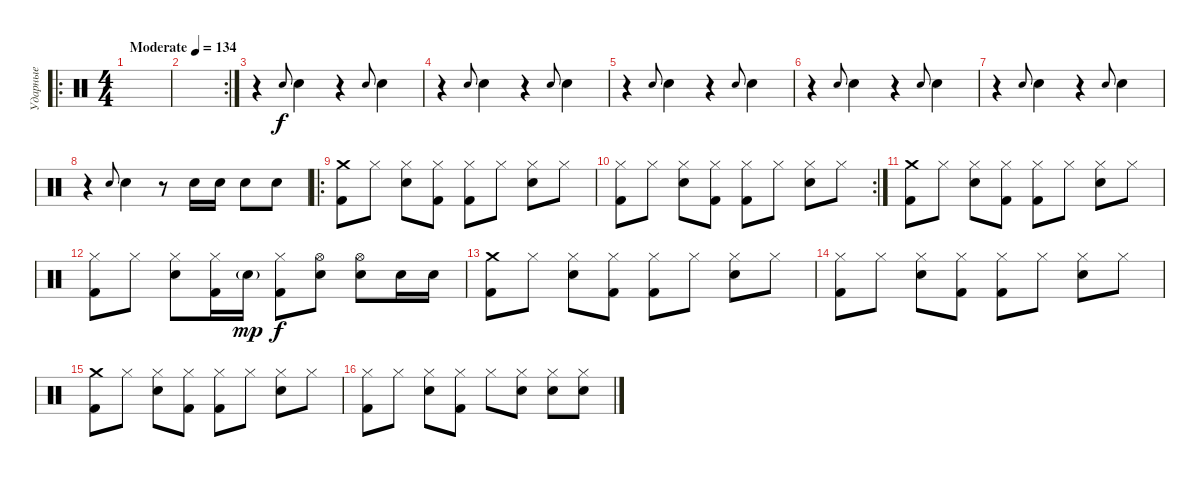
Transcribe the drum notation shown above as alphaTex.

\track ("Ударные" "Ударные") {instrument percussion}
\staff {score}
\articulation defaults
\ro
\ts (4 4)
\tempo (134 "Moderate")
\clef neutral
\ks c
|
\rc 2
|
r.4 "Electric Snare (hit)".8{gr onbeat} "Electric Snare (hit)".4 r.4 "Electric Snare (hit)".8{gr onbeat} "Electric Snare (hit)".4 |
r.4 "Electric Snare (hit)".8{gr onbeat} "Electric Snare (hit)".4 r.4 "Electric Snare (hit)".8{gr onbeat} "Electric Snare (hit)".4 |
r.4 "Electric Snare (hit)".8{gr onbeat} "Electric Snare (hit)".4 r.4 "Electric Snare (hit)".8{gr onbeat} "Electric Snare (hit)".4 |
r.4 "Electric Snare (hit)".8{gr onbeat} "Electric Snare (hit)".4 r.4 "Electric Snare (hit)".8{gr onbeat} "Electric Snare (hit)".4 |
r.4 "Electric Snare (hit)".8{gr onbeat} "Electric Snare (hit)".4 r.4 "Electric Snare (hit)".8{gr onbeat} "Electric Snare (hit)".4 |
r.4 "Electric Snare (hit)".8{gr onbeat} "Electric Snare (hit)".4 r.8 "Electric Snare (hit)".16 "Electric Snare (hit)".16 "Electric Snare (hit)".8 "Electric Snare (hit)".8 |
\ro
("Kick (hit) 2" "Crash medium (hit)").8 "Hi-Hat (closed)".8 ("Electric Snare (hit)" "Hi-Hat (closed)").8 ("Kick (hit) 2" "Hi-Hat (closed)").8 ("Kick (hit) 2" "Hi-Hat (closed)").8 "Hi-Hat (closed)".8 ("Electric Snare (hit)" "Hi-Hat (closed)").8 "Hi-Hat (closed)".8 |
\rc 2
("Kick (hit) 2" "Hi-Hat (closed)").8 "Hi-Hat (closed)".8 ("Electric Snare (hit)" "Hi-Hat (closed)").8 ("Kick (hit) 2" "Hi-Hat (closed)").8 ("Kick (hit) 2" "Hi-Hat (closed)").8 "Hi-Hat (closed)".8 ("Electric Snare (hit)" "Hi-Hat (closed)").8 "Hi-Hat (closed)".8 |
("Kick (hit) 2" "Crash medium (hit)").8 "Hi-Hat (closed)".8 ("Electric Snare (hit)" "Hi-Hat (closed)").8 ("Kick (hit) 2" "Hi-Hat (closed)").8 ("Kick (hit) 2" "Hi-Hat (closed)").8 "Hi-Hat (closed)".8 ("Electric Snare (hit)" "Hi-Hat (closed)").8 "Hi-Hat (closed)".8 |
("Kick (hit) 2" "Hi-Hat (closed)").8 "Hi-Hat (closed)".8 ("Electric Snare (hit)" "Hi-Hat (closed)").8 ("Kick (hit) 2" "Hi-Hat (closed)").16 "Electric Snare (hit)"{g}.16{dy mp} ("Kick (hit) 2" "Hi-Hat (closed)").8{dy f} ("Electric Snare (hit)" "Hi-Hat (open)").8 ("Electric Snare (hit)" "Hi-Hat (open)").8 "Electric Snare (hit)".16 "Electric Snare (hit)".16 |
("Kick (hit) 2" "Crash medium (hit)").8 "Hi-Hat (closed)".8 ("Electric Snare (hit)" "Hi-Hat (closed)").8 ("Kick (hit) 2" "Hi-Hat (closed)").8 ("Kick (hit) 2" "Hi-Hat (closed)").8 "Hi-Hat (closed)".8 ("Electric Snare (hit)" "Hi-Hat (closed)").8 "Hi-Hat (closed)".8 |
("Kick (hit) 2" "Hi-Hat (closed)").8 "Hi-Hat (closed)".8 ("Electric Snare (hit)" "Hi-Hat (closed)").8 ("Kick (hit) 2" "Hi-Hat (closed)").8 ("Kick (hit) 2" "Hi-Hat (closed)").8 "Hi-Hat (closed)".8 ("Electric Snare (hit)" "Hi-Hat (closed)").8 "Hi-Hat (closed)".8 |
("Kick (hit) 2" "Crash medium (hit)").8 "Hi-Hat (closed)".8 ("Electric Snare (hit)" "Hi-Hat (closed)").8 ("Kick (hit) 2" "Hi-Hat (closed)").8 ("Kick (hit) 2" "Hi-Hat (closed)").8 "Hi-Hat (closed)".8 ("Electric Snare (hit)" "Hi-Hat (closed)").8 "Hi-Hat (closed)".8 |
("Kick (hit) 2" "Hi-Hat (closed)").8 "Hi-Hat (closed)".8 ("Electric Snare (hit)" "Hi-Hat (closed)").8 ("Kick (hit) 2" "Hi-Hat (closed)").8 "Hi-Hat (closed)".8 ("Electric Snare (hit)" "Hi-Hat (closed)").8 ("Electric Snare (hit)" "Hi-Hat (closed)").8 ("Electric Snare (hit)" "Hi-Hat (closed)").8
